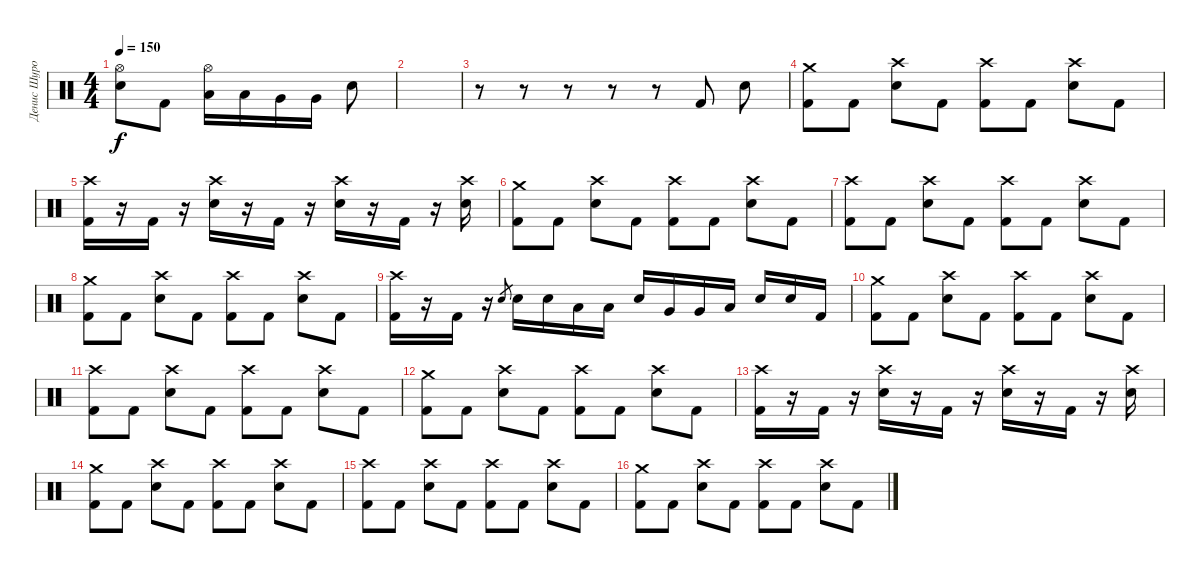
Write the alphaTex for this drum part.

\track ("Денис Шуров" "Денис Шуро") {instrument percussion}
\staff {score}
\articulation defaults
\ts (4 4)
\tempo 150
\clef neutral
\ks c
("Hi-Hat (open)" "Electric Snare (hit)").8{dy f} "Kick (hit) 2".8 ("Hi-Hat (open)" "Low Tom (hit)").16 "Low Tom (hit)".16 "Very Low Tom (hit)".16 "Very Low Tom (hit)".16 "Electric Snare (hit)".8 |
|
r.8 r.8 r.8 r.8 r.8 "Kick (hit) 2".8 "Electric Snare (hit)".8 |
("Crash medium (hit)" "Kick (hit) 2").8 "Kick (hit) 2".8 ("Crash high (hit)" "Electric Snare (hit)").8 "Kick (hit) 2".8 ("Crash high (hit)" "Kick (hit) 2").8 "Kick (hit) 2".8 ("Crash high (hit)" "Electric Snare (hit)").8 "Kick (hit) 2".8 |
("Crash high (hit)" "Kick (hit) 2").16 r.16 "Kick (hit) 2".16 r.16 ("Crash high (hit)" "Electric Snare (hit)").16 r.16 "Kick (hit) 2".16 r.16 ("Crash high (hit)" "Electric Snare (hit)").16 r.16 "Kick (hit) 2".16 r.16 ("Crash high (hit)" "Electric Snare (hit)").16 |
("Crash medium (hit)" "Kick (hit) 2").8 "Kick (hit) 2".8 ("Crash high (hit)" "Electric Snare (hit)").8 "Kick (hit) 2".8 ("Crash high (hit)" "Kick (hit) 2").8 "Kick (hit) 2".8 ("Crash high (hit)" "Electric Snare (hit)").8 "Kick (hit) 2".8 |
("Crash high (hit)" "Kick (hit) 2").8 "Kick (hit) 2".8 ("Crash high (hit)" "Electric Snare (hit)").8 "Kick (hit) 2".8 ("Crash high (hit)" "Kick (hit) 2").8 "Kick (hit) 2".8 ("Crash high (hit)" "Electric Snare (hit)").8 "Kick (hit) 2".8 |
("Crash medium (hit)" "Kick (hit) 2").8 "Kick (hit) 2".8 ("Crash high (hit)" "Electric Snare (hit)").8 "Kick (hit) 2".8 ("Crash high (hit)" "Kick (hit) 2").8 "Kick (hit) 2".8 ("Crash high (hit)" "Electric Snare (hit)").8 "Kick (hit) 2".8 |
("Crash high (hit)" "Kick (hit) 2").16 r.16 "Kick (hit) 2".16 r.16 "Electric Snare (hit)".8{gr} "Electric Snare (hit)".16 "Electric Snare (hit)".16 "Low Tom (hit)".16 "Low Tom (hit)".16 "Electric Snare (hit)".16 "Very Low Tom (hit)".16 "Very Low Tom (hit)".16 "Low Tom (hit)".16 "Electric Snare (hit)".16 "Electric Snare (hit)".16 "Kick (hit) 2".16 |
("Crash medium (hit)" "Kick (hit) 2").8 "Kick (hit) 2".8 ("Crash high (hit)" "Electric Snare (hit)").8 "Kick (hit) 2".8 ("Crash high (hit)" "Kick (hit) 2").8 "Kick (hit) 2".8 ("Crash high (hit)" "Electric Snare (hit)").8 "Kick (hit) 2".8 |
("Crash high (hit)" "Kick (hit) 2").8 "Kick (hit) 2".8 ("Crash high (hit)" "Electric Snare (hit)").8 "Kick (hit) 2".8 ("Crash high (hit)" "Kick (hit) 2").8 "Kick (hit) 2".8 ("Crash high (hit)" "Electric Snare (hit)").8 "Kick (hit) 2".8 |
("Crash medium (hit)" "Kick (hit) 2").8 "Kick (hit) 2".8 ("Crash high (hit)" "Electric Snare (hit)").8 "Kick (hit) 2".8 ("Crash high (hit)" "Kick (hit) 2").8 "Kick (hit) 2".8 ("Crash high (hit)" "Electric Snare (hit)").8 "Kick (hit) 2".8 |
("Crash high (hit)" "Kick (hit) 2").16 r.16 "Kick (hit) 2".16 r.16 ("Crash high (hit)" "Electric Snare (hit)").16 r.16 "Kick (hit) 2".16 r.16 ("Crash high (hit)" "Electric Snare (hit)").16 r.16 "Kick (hit) 2".16 r.16 ("Crash high (hit)" "Electric Snare (hit)").16 |
("Crash medium (hit)" "Kick (hit) 2").8 "Kick (hit) 2".8 ("Crash high (hit)" "Electric Snare (hit)").8 "Kick (hit) 2".8 ("Crash high (hit)" "Kick (hit) 2").8 "Kick (hit) 2".8 ("Crash high (hit)" "Electric Snare (hit)").8 "Kick (hit) 2".8 |
("Crash high (hit)" "Kick (hit) 2").8 "Kick (hit) 2".8 ("Crash high (hit)" "Electric Snare (hit)").8 "Kick (hit) 2".8 ("Crash high (hit)" "Kick (hit) 2").8 "Kick (hit) 2".8 ("Crash high (hit)" "Electric Snare (hit)").8 "Kick (hit) 2".8 |
("Crash medium (hit)" "Kick (hit) 2").8 "Kick (hit) 2".8 ("Crash high (hit)" "Electric Snare (hit)").8 "Kick (hit) 2".8 ("Crash high (hit)" "Kick (hit) 2").8 "Kick (hit) 2".8 ("Crash high (hit)" "Electric Snare (hit)").8 "Kick (hit) 2".8
